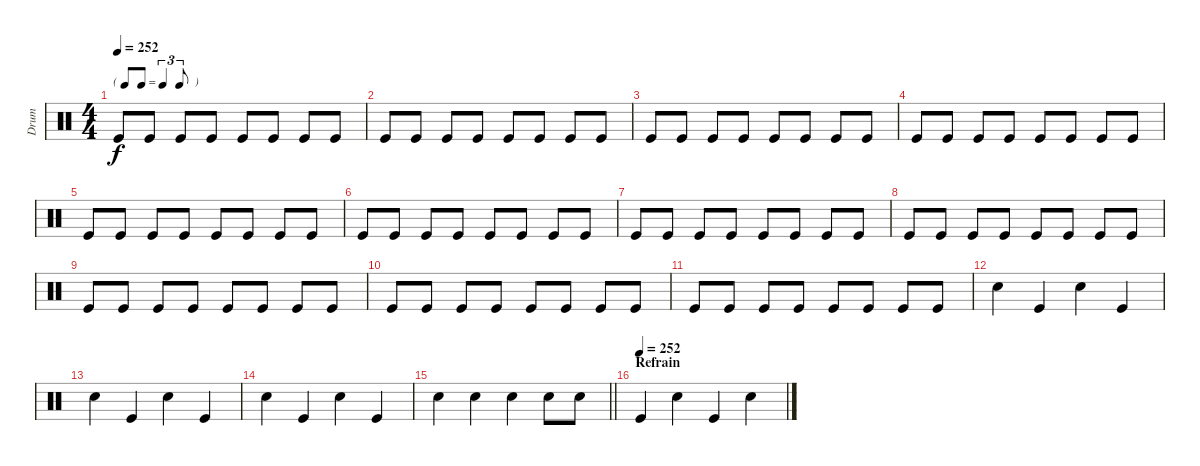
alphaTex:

\track ("Drum" "Drum") {instrument percussion}
\staff {score}
\articulation defaults
\ts (4 4)
\tf triplet8th
\tempo 252
\clef neutral
\ks c "Kick (hit)".8{dy f} "Kick (hit)".8 "Kick (hit)".8 "Kick (hit)".8 "Kick (hit)".8 "Kick (hit)".8 "Kick (hit)".8 "Kick (hit)".8
|
"Kick (hit)".8 "Kick (hit)".8 "Kick (hit)".8 "Kick (hit)".8 "Kick (hit)".8 "Kick (hit)".8 "Kick (hit)".8 "Kick (hit)".8 |
"Kick (hit)".8 "Kick (hit)".8 "Kick (hit)".8 "Kick (hit)".8 "Kick (hit)".8 "Kick (hit)".8 "Kick (hit)".8 "Kick (hit)".8 |
"Kick (hit)".8 "Kick (hit)".8 "Kick (hit)".8 "Kick (hit)".8 "Kick (hit)".8 "Kick (hit)".8 "Kick (hit)".8 "Kick (hit)".8 |
"Kick (hit)".8 "Kick (hit)".8 "Kick (hit)".8 "Kick (hit)".8 "Kick (hit)".8 "Kick (hit)".8 "Kick (hit)".8 "Kick (hit)".8 |
"Kick (hit)".8 "Kick (hit)".8 "Kick (hit)".8 "Kick (hit)".8 "Kick (hit)".8 "Kick (hit)".8 "Kick (hit)".8 "Kick (hit)".8 |
"Kick (hit)".8 "Kick (hit)".8 "Kick (hit)".8 "Kick (hit)".8 "Kick (hit)".8 "Kick (hit)".8 "Kick (hit)".8 "Kick (hit)".8 |
"Kick (hit)".8 "Kick (hit)".8 "Kick (hit)".8 "Kick (hit)".8 "Kick (hit)".8 "Kick (hit)".8 "Kick (hit)".8 "Kick (hit)".8 |
"Kick (hit)".8 "Kick (hit)".8 "Kick (hit)".8 "Kick (hit)".8 "Kick (hit)".8 "Kick (hit)".8 "Kick (hit)".8 "Kick (hit)".8 |
"Kick (hit)".8 "Kick (hit)".8 "Kick (hit)".8 "Kick (hit)".8 "Kick (hit)".8 "Kick (hit)".8 "Kick (hit)".8 "Kick (hit)".8 |
"Kick (hit)".8 "Kick (hit)".8 "Kick (hit)".8 "Kick (hit)".8 "Kick (hit)".8 "Kick (hit)".8 "Kick (hit)".8 "Kick (hit)".8 |
"Snare (hit) 2".4{volume 14} "Kick (hit)".4 "Snare (hit) 2".4 "Kick (hit)".4 |
"Snare (hit) 2".4 "Kick (hit)".4 "Snare (hit) 2".4 "Kick (hit)".4 |
"Snare (hit) 2".4 "Kick (hit)".4 "Snare (hit) 2".4 "Kick (hit)".4 |
\barLineRight lightlight "Snare (hit) 2".4 "Snare (hit) 2".4 "Snare (hit) 2".4 "Snare (hit) 2".8 "Snare (hit) 2".8
|
\section ("" "Refrain")
\tempo (252)
"Kick (hit)".4 "Snare (hit) 2".4 "Kick (hit)".4 "Snare (hit) 2".4
